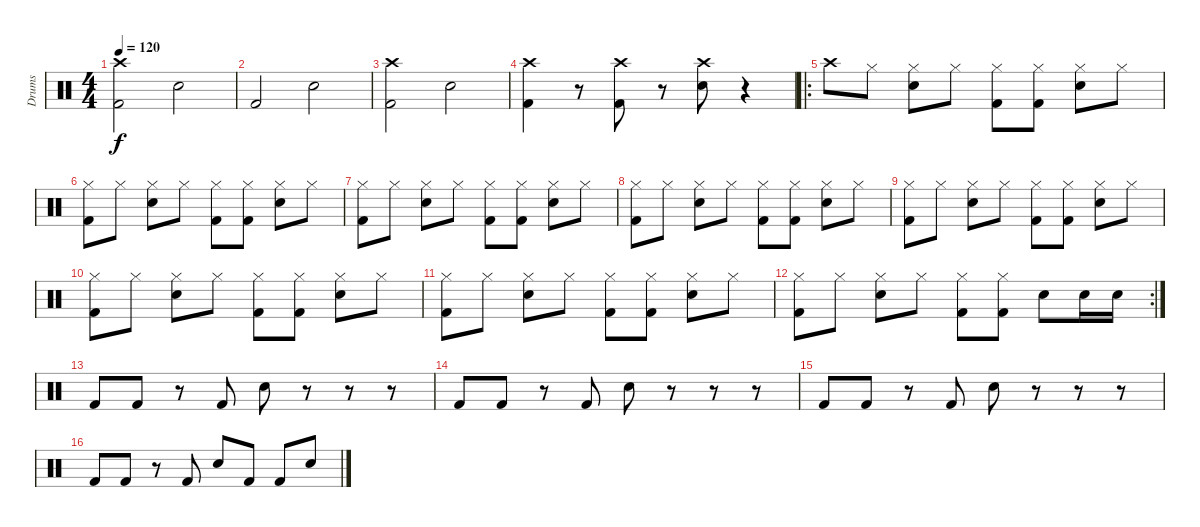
\track ("Drums" "Drums") {instrument percussion}
\staff {score}
\articulation defaults
\ts (4 4)
\tempo 120
\clef neutral
\ks c
("Kick (hit) 2" "Crash high (hit)").2{dy f} "Electric Snare (hit)".2 |
"Kick (hit) 2".2 "Electric Snare (hit)".2 |
("Kick (hit) 2" "Crash high (hit)").2 "Electric Snare (hit)".2 |
("Kick (hit) 2" "Crash high (hit)").4 r.8 ("Kick (hit) 2" "Crash high (hit)").8 r.8 ("Electric Snare (hit)" "Crash high (hit)").8 r.4 |
\ro "Crash high (hit)".8 "Hi-Hat (closed)".8
("Electric Snare (hit)" "Hi-Hat (closed)").8 "Hi-Hat (closed)".8 ("Kick (hit) 2" "Hi-Hat (closed)").8 ("Kick (hit) 2" "Hi-Hat (closed)").8 ("Electric Snare (hit)" "Hi-Hat (closed)").8 "Hi-Hat (closed)".8 |
("Kick (hit) 2" "Hi-Hat (closed)").8 "Hi-Hat (closed)".8 ("Electric Snare (hit)" "Hi-Hat (closed)").8 "Hi-Hat (closed)".8 ("Kick (hit) 2" "Hi-Hat (closed)").8 ("Kick (hit) 2" "Hi-Hat (closed)").8 ("Electric Snare (hit)" "Hi-Hat (closed)").8 "Hi-Hat (closed)".8 |
("Kick (hit) 2" "Hi-Hat (closed)").8 "Hi-Hat (closed)".8 ("Electric Snare (hit)" "Hi-Hat (closed)").8 "Hi-Hat (closed)".8 ("Kick (hit) 2" "Hi-Hat (closed)").8 ("Kick (hit) 2" "Hi-Hat (closed)").8 ("Electric Snare (hit)" "Hi-Hat (closed)").8 "Hi-Hat (closed)".8 |
("Kick (hit) 2" "Hi-Hat (closed)").8 "Hi-Hat (closed)".8 ("Electric Snare (hit)" "Hi-Hat (closed)").8 "Hi-Hat (closed)".8 ("Kick (hit) 2" "Hi-Hat (closed)").8 ("Kick (hit) 2" "Hi-Hat (closed)").8 ("Electric Snare (hit)" "Hi-Hat (closed)").8 "Hi-Hat (closed)".8 |
("Kick (hit) 2" "Hi-Hat (closed)").8 "Hi-Hat (closed)".8 ("Electric Snare (hit)" "Hi-Hat (closed)").8 "Hi-Hat (closed)".8 ("Kick (hit) 2" "Hi-Hat (closed)").8 ("Kick (hit) 2" "Hi-Hat (closed)").8 ("Electric Snare (hit)" "Hi-Hat (closed)").8 "Hi-Hat (closed)".8 |
("Kick (hit) 2" "Hi-Hat (closed)").8 "Hi-Hat (closed)".8 ("Electric Snare (hit)" "Hi-Hat (closed)").8 "Hi-Hat (closed)".8 ("Kick (hit) 2" "Hi-Hat (closed)").8 ("Kick (hit) 2" "Hi-Hat (closed)").8 ("Electric Snare (hit)" "Hi-Hat (closed)").8 "Hi-Hat (closed)".8 |
("Kick (hit) 2" "Hi-Hat (closed)").8 "Hi-Hat (closed)".8 ("Electric Snare (hit)" "Hi-Hat (closed)").8 "Hi-Hat (closed)".8 ("Kick (hit) 2" "Hi-Hat (closed)").8 ("Kick (hit) 2" "Hi-Hat (closed)").8 ("Electric Snare (hit)" "Hi-Hat (closed)").8 "Hi-Hat (closed)".8 |
\rc 2
("Kick (hit) 2" "Hi-Hat (closed)").8 "Hi-Hat (closed)".8 ("Electric Snare (hit)" "Hi-Hat (closed)").8 "Hi-Hat (closed)".8 ("Kick (hit) 2" "Hi-Hat (closed)").8 ("Kick (hit) 2" "Hi-Hat (closed)").8 "Electric Snare (hit)".8 "Electric Snare (hit)".16 "Electric Snare (hit)".16 |
"Kick (hit) 2".8 "Kick (hit) 2".8 r.8 "Kick (hit) 2".8 "Electric Snare (hit)".8 r.8 r.8 r.8 |
"Kick (hit) 2".8 "Kick (hit) 2".8 r.8 "Kick (hit) 2".8 "Electric Snare (hit)".8 r.8 r.8 r.8 |
"Kick (hit) 2".8 "Kick (hit) 2".8 r.8 "Kick (hit) 2".8 "Electric Snare (hit)".8 r.8 r.8 r.8 |
"Kick (hit) 2".8 "Kick (hit) 2".8 r.8 "Kick (hit) 2".8 "Electric Snare (hit)".8 "Kick (hit) 2".8 "Kick (hit) 2".8 "Electric Snare (hit)".8
